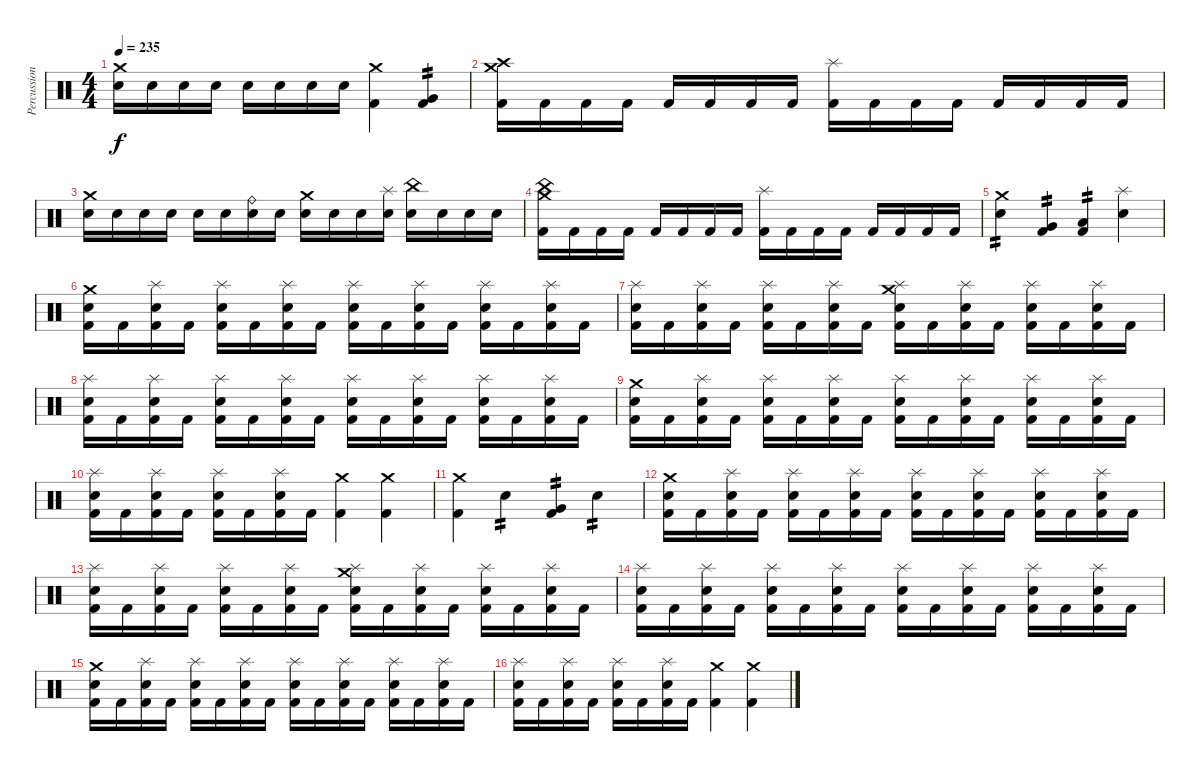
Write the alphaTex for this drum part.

\track ("Percussion" "Percussion") {instrument percussion}
\staff {score}
\articulation defaults
\ts (4 4)
\tempo 235
\clef neutral
\ks c
("Crash medium (hit)" "Snare (hit) 2").16{dy f} "Snare (hit) 2".16 "Snare (hit) 2".16 "Snare (hit) 2".16 "Snare (hit) 2".16 "Snare (hit) 2".16 "Snare (hit) 2".16 "Snare (hit) 2".16 ("Crash medium (hit)" "Kick (hit) 2").4 ("Very Low Tom (hit)" "Kick (hit) 2").4{tp 2} |
("Crash high (hit)" "Crash medium (hit)" "Kick (hit) 2").16 "Kick (hit) 2".16 "Kick (hit) 2".16 "Kick (hit) 2".16 "Kick (hit) 2".16 "Kick (hit) 2".16 "Kick (hit) 2".16 "Kick (hit) 2".16 ("Splash (hit)" "Kick (hit) 2").16 "Kick (hit) 2".16 "Kick (hit) 2".16 "Kick (hit) 2".16 "Kick (hit) 2".16 "Kick (hit) 2".16 "Kick (hit) 2".16 "Kick (hit) 2".16 |
("Crash medium (hit)" "Snare (hit) 2").16 "Snare (hit)".16 "Snare (hit)".16 "Snare (hit)".16 "Snare (hit)".16 "Snare (hit)".16 ("Ride (bell)" "Snare (hit)").16 "Snare (hit)".16 ("Crash medium (hit)" "Snare (hit)").16 "Snare (hit)".16 "Snare (hit)".16 ("Splash (hit)" "Snare (hit)").16 ("China (hit)" "Snare (hit)").16 "Snare (hit)".16 "Snare (hit)".16 "Snare (hit)".16 |
("China (hit)" "Crash medium (hit)" "Kick (hit) 2").16 "Kick (hit) 2".16 "Kick (hit) 2".16 "Kick (hit) 2".16 "Kick (hit) 2".16 "Kick (hit) 2".16 "Kick (hit) 2".16 "Kick (hit) 2".16 ("Splash (hit)" "Kick (hit) 2").16 "Kick (hit) 2".16 "Kick (hit) 2".16 "Kick (hit) 2".16 "Kick (hit) 2".16 "Kick (hit) 2".16 "Kick (hit) 2".16 "Kick (hit) 2".16 |
("Crash medium (hit)" "Snare (hit) 2").4{tp 2} ("Very Low Tom (hit)" "Kick (hit) 2").4{tp 2} ("Low Floor Tom (hit)" "Kick (hit) 2").4{tp 2} ("Splash (hit)" "Snare (hit) 2").4 |
("Crash medium (hit)" "Snare (hit) 2" "Kick (hit) 2").16 "Kick (hit) 2".16 ("Splash (hit)" "Snare (hit) 2" "Kick (hit) 2").16 "Kick (hit) 2".16 ("Splash (hit)" "Snare (hit) 2" "Kick (hit) 2").16 "Kick (hit) 2".16 ("Splash (hit)" "Snare (hit) 2" "Kick (hit) 2").16 "Kick (hit) 2".16 ("Splash (hit)" "Snare (hit) 2" "Kick (hit) 2").16 "Kick (hit) 2".16 ("Splash (hit)" "Snare (hit) 2" "Kick (hit) 2").16 "Kick (hit) 2".16 ("Splash (hit)" "Snare (hit) 2" "Kick (hit) 2").16 "Kick (hit) 2".16 ("Splash (hit)" "Snare (hit) 2" "Kick (hit) 2").16 "Kick (hit) 2".16 |
("Splash (hit)" "Snare (hit) 2" "Kick (hit) 2").16 "Kick (hit) 2".16 ("Splash (hit)" "Snare (hit) 2" "Kick (hit) 2").16 "Kick (hit) 2".16 ("Splash (hit)" "Snare (hit) 2" "Kick (hit) 2").16 "Kick (hit) 2".16 ("Splash (hit)" "Snare (hit) 2" "Kick (hit) 2").16 "Kick (hit) 2".16 ("Crash medium (hit)" "Splash (hit)" "Snare (hit) 2" "Kick (hit) 2").16 "Kick (hit) 2".16 ("Splash (hit)" "Snare (hit) 2" "Kick (hit) 2").16 "Kick (hit) 2".16 ("Splash (hit)" "Snare (hit) 2" "Kick (hit) 2").16 "Kick (hit) 2".16 ("Splash (hit)" "Snare (hit) 2" "Kick (hit) 2").16 "Kick (hit) 2".16 |
("Splash (hit)" "Snare (hit) 2" "Kick (hit) 2").16 "Kick (hit) 2".16 ("Splash (hit)" "Snare (hit) 2" "Kick (hit) 2").16 "Kick (hit) 2".16 ("Splash (hit)" "Snare (hit) 2" "Kick (hit) 2").16 "Kick (hit) 2".16 ("Splash (hit)" "Snare (hit) 2" "Kick (hit) 2").16 "Kick (hit) 2".16 ("Splash (hit)" "Snare (hit) 2" "Kick (hit) 2").16 "Kick (hit) 2".16 ("Splash (hit)" "Snare (hit) 2" "Kick (hit) 2").16 "Kick (hit) 2".16 ("Splash (hit)" "Snare (hit) 2" "Kick (hit) 2").16 "Kick (hit) 2".16 ("Splash (hit)" "Snare (hit) 2" "Kick (hit) 2").16 "Kick (hit) 2".16 |
("Crash medium (hit)" "Snare (hit) 2" "Kick (hit) 2").16 "Kick (hit) 2".16 ("Splash (hit)" "Snare (hit) 2" "Kick (hit) 2").16 "Kick (hit) 2".16 ("Splash (hit)" "Snare (hit) 2" "Kick (hit) 2").16 "Kick (hit) 2".16 ("Splash (hit)" "Snare (hit) 2" "Kick (hit) 2").16 "Kick (hit) 2".16 ("Splash (hit)" "Snare (hit) 2" "Kick (hit) 2").16 "Kick (hit) 2".16 ("Splash (hit)" "Snare (hit) 2" "Kick (hit) 2").16 "Kick (hit) 2".16 ("Splash (hit)" "Snare (hit) 2" "Kick (hit) 2").16 "Kick (hit) 2".16 ("Splash (hit)" "Snare (hit) 2" "Kick (hit) 2").16 "Kick (hit) 2".16 |
("Splash (hit)" "Snare (hit) 2" "Kick (hit) 2").16 "Kick (hit) 2".16 ("Splash (hit)" "Snare (hit) 2" "Kick (hit) 2").16 "Kick (hit) 2".16 ("Splash (hit)" "Snare (hit) 2" "Kick (hit) 2").16 "Kick (hit) 2".16 ("Splash (hit)" "Snare (hit) 2" "Kick (hit) 2").16 "Kick (hit) 2".16 ("Crash medium (hit)" "Kick (hit) 2").4 ("Crash medium (hit)" "Kick (hit) 2").4 |
("Crash medium (hit)" "Kick (hit) 2").4 "Snare (hit) 2".4{tp 2} ("Very Low Tom (hit)" "Kick (hit) 2").4{tp 2} "Snare (hit) 2".4{tp 2} |
("Crash medium (hit)" "Snare (hit) 2" "Kick (hit) 2").16 "Kick (hit) 2".16 ("Splash (hit)" "Snare (hit) 2" "Kick (hit) 2").16 "Kick (hit) 2".16 ("Splash (hit)" "Snare (hit) 2" "Kick (hit) 2").16 "Kick (hit) 2".16 ("Splash (hit)" "Snare (hit) 2" "Kick (hit) 2").16 "Kick (hit) 2".16 ("Splash (hit)" "Snare (hit) 2" "Kick (hit) 2").16 "Kick (hit) 2".16 ("Splash (hit)" "Snare (hit) 2" "Kick (hit) 2").16 "Kick (hit) 2".16 ("Splash (hit)" "Snare (hit) 2" "Kick (hit) 2").16 "Kick (hit) 2".16 ("Splash (hit)" "Snare (hit) 2" "Kick (hit) 2").16 "Kick (hit) 2".16 |
("Splash (hit)" "Snare (hit) 2" "Kick (hit) 2").16 "Kick (hit) 2".16 ("Splash (hit)" "Snare (hit) 2" "Kick (hit) 2").16 "Kick (hit) 2".16 ("Splash (hit)" "Snare (hit) 2" "Kick (hit) 2").16 "Kick (hit) 2".16 ("Splash (hit)" "Snare (hit) 2" "Kick (hit) 2").16 "Kick (hit) 2".16 ("Crash medium (hit)" "Splash (hit)" "Snare (hit) 2" "Kick (hit) 2").16 "Kick (hit) 2".16 ("Splash (hit)" "Snare (hit) 2" "Kick (hit) 2").16 "Kick (hit) 2".16 ("Splash (hit)" "Snare (hit) 2" "Kick (hit) 2").16 "Kick (hit) 2".16 ("Splash (hit)" "Snare (hit) 2" "Kick (hit) 2").16 "Kick (hit) 2".16 |
("Splash (hit)" "Snare (hit) 2" "Kick (hit) 2").16 "Kick (hit) 2".16 ("Splash (hit)" "Snare (hit) 2" "Kick (hit) 2").16 "Kick (hit) 2".16 ("Splash (hit)" "Snare (hit) 2" "Kick (hit) 2").16 "Kick (hit) 2".16 ("Splash (hit)" "Snare (hit) 2" "Kick (hit) 2").16 "Kick (hit) 2".16 ("Splash (hit)" "Snare (hit) 2" "Kick (hit) 2").16 "Kick (hit) 2".16 ("Splash (hit)" "Snare (hit) 2" "Kick (hit) 2").16 "Kick (hit) 2".16 ("Splash (hit)" "Snare (hit) 2" "Kick (hit) 2").16 "Kick (hit) 2".16 ("Splash (hit)" "Snare (hit) 2" "Kick (hit) 2").16 "Kick (hit) 2".16 |
("Crash medium (hit)" "Snare (hit) 2" "Kick (hit) 2").16 "Kick (hit) 2".16 ("Splash (hit)" "Snare (hit) 2" "Kick (hit) 2").16 "Kick (hit) 2".16 ("Splash (hit)" "Snare (hit) 2" "Kick (hit) 2").16 "Kick (hit) 2".16 ("Splash (hit)" "Snare (hit) 2" "Kick (hit) 2").16 "Kick (hit) 2".16 ("Splash (hit)" "Snare (hit) 2" "Kick (hit) 2").16 "Kick (hit) 2".16 ("Splash (hit)" "Snare (hit) 2" "Kick (hit) 2").16 "Kick (hit) 2".16 ("Splash (hit)" "Snare (hit) 2" "Kick (hit) 2").16 "Kick (hit) 2".16 ("Splash (hit)" "Snare (hit) 2" "Kick (hit) 2").16 "Kick (hit) 2".16 |
("Splash (hit)" "Snare (hit) 2" "Kick (hit) 2").16 "Kick (hit) 2".16 ("Splash (hit)" "Snare (hit) 2" "Kick (hit) 2").16 "Kick (hit) 2".16 ("Splash (hit)" "Snare (hit) 2" "Kick (hit) 2").16 "Kick (hit) 2".16 ("Splash (hit)" "Snare (hit) 2" "Kick (hit) 2").16 "Kick (hit) 2".16 ("Crash medium (hit)" "Kick (hit) 2").4 ("Crash medium (hit)" "Kick (hit) 2").4
